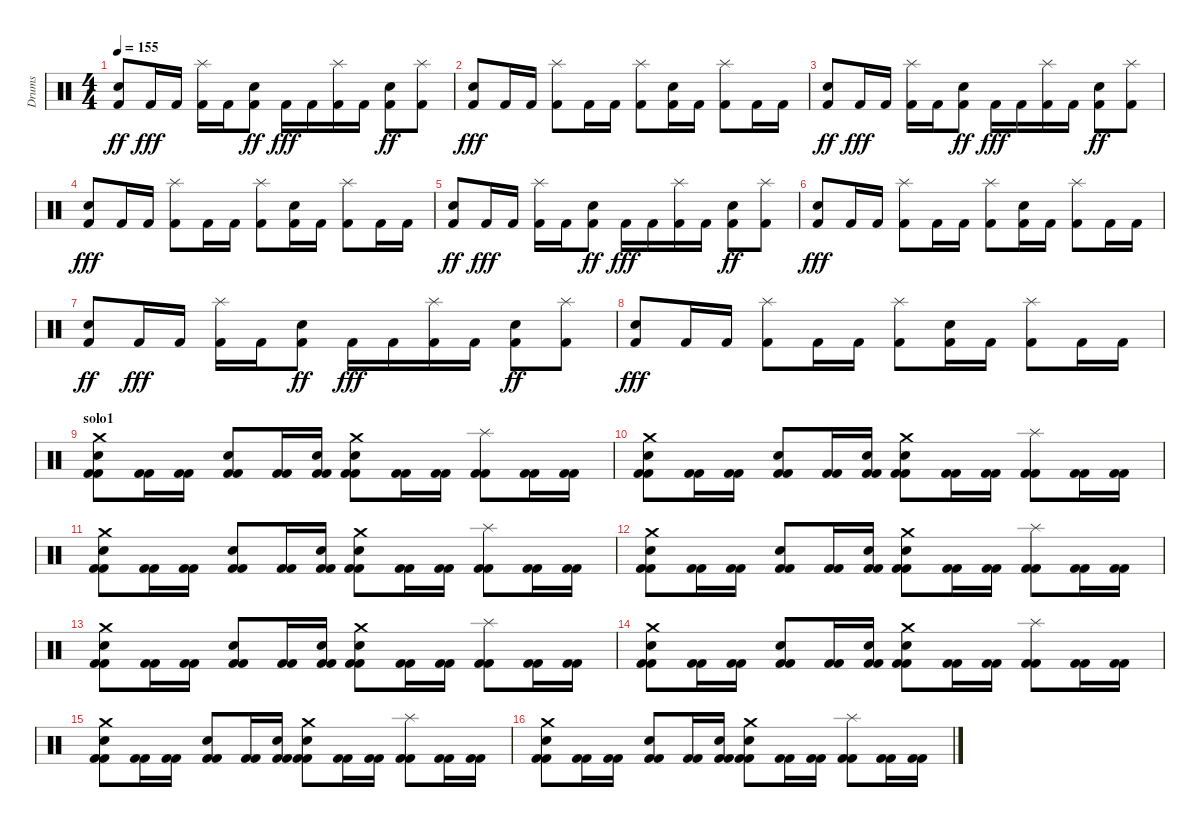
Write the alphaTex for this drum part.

\track ("Drums" "Drums") {instrument percussion}
\staff {score}
\articulation defaults
\ts (4 4)
\tempo 155
\clef neutral
\ks c
("Kick (hit) 2" "Electric Snare (hit)").8{dy ff} "Kick (hit) 2".16{dy fff} "Kick (hit) 2".16 ("Splash (hit)" "Kick (hit) 2").16 "Kick (hit) 2".16 ("Kick (hit) 2" "Electric Snare (hit)").8{dy ff} "Kick (hit) 2".16{dy fff} "Kick (hit) 2".16 ("Splash (hit)" "Kick (hit) 2").16 "Kick (hit) 2".16 ("Kick (hit) 2" "Electric Snare (hit)").8{dy ff} ("Kick (hit) 2" "Splash (hit)").8 |
("Electric Snare (hit)" "Kick (hit) 2").8{dy fff} "Kick (hit) 2".16 "Kick (hit) 2".16 ("Splash (hit)" "Kick (hit) 2").8 "Kick (hit) 2".16 "Kick (hit) 2".16 ("Splash (hit)" "Kick (hit) 2").8 ("Electric Snare (hit)" "Kick (hit) 2").16 "Kick (hit) 2".16 ("Splash (hit)" "Kick (hit) 2").8 "Kick (hit) 2".16 "Kick (hit) 2".16 |
("Kick (hit) 2" "Electric Snare (hit)").8{dy ff} "Kick (hit) 2".16{dy fff} "Kick (hit) 2".16 ("Splash (hit)" "Kick (hit) 2").16 "Kick (hit) 2".16 ("Kick (hit) 2" "Electric Snare (hit)").8{dy ff} "Kick (hit) 2".16{dy fff} "Kick (hit) 2".16 ("Splash (hit)" "Kick (hit) 2").16 "Kick (hit) 2".16 ("Kick (hit) 2" "Electric Snare (hit)").8{dy ff} ("Kick (hit) 2" "Splash (hit)").8 |
("Electric Snare (hit)" "Kick (hit) 2").8{dy fff} "Kick (hit) 2".16 "Kick (hit) 2".16 ("Splash (hit)" "Kick (hit) 2").8 "Kick (hit) 2".16 "Kick (hit) 2".16 ("Splash (hit)" "Kick (hit) 2").8 ("Electric Snare (hit)" "Kick (hit) 2").16 "Kick (hit) 2".16 ("Splash (hit)" "Kick (hit) 2").8 "Kick (hit) 2".16 "Kick (hit) 2".16 |
("Kick (hit) 2" "Electric Snare (hit)").8{dy ff} "Kick (hit) 2".16{dy fff} "Kick (hit) 2".16 ("Splash (hit)" "Kick (hit) 2").16 "Kick (hit) 2".16 ("Kick (hit) 2" "Electric Snare (hit)").8{dy ff} "Kick (hit) 2".16{dy fff} "Kick (hit) 2".16 ("Splash (hit)" "Kick (hit) 2").16 "Kick (hit) 2".16 ("Kick (hit) 2" "Electric Snare (hit)").8{dy ff} ("Kick (hit) 2" "Splash (hit)").8 |
("Electric Snare (hit)" "Kick (hit) 2").8{dy fff} "Kick (hit) 2".16 "Kick (hit) 2".16 ("Splash (hit)" "Kick (hit) 2").8 "Kick (hit) 2".16 "Kick (hit) 2".16 ("Splash (hit)" "Kick (hit) 2").8 ("Electric Snare (hit)" "Kick (hit) 2").16 "Kick (hit) 2".16 ("Splash (hit)" "Kick (hit) 2").8 "Kick (hit) 2".16 "Kick (hit) 2".16 |
("Kick (hit) 2" "Electric Snare (hit)").8{dy ff} "Kick (hit) 2".16{dy fff} "Kick (hit) 2".16 ("Splash (hit)" "Kick (hit) 2").16 "Kick (hit) 2".16 ("Kick (hit) 2" "Electric Snare (hit)").8{dy ff} "Kick (hit) 2".16{dy fff} "Kick (hit) 2".16 ("Splash (hit)" "Kick (hit) 2").16 "Kick (hit) 2".16 ("Kick (hit) 2" "Electric Snare (hit)").8{dy ff} ("Kick (hit) 2" "Splash (hit)").8 |
("Electric Snare (hit)" "Kick (hit) 2").8{dy fff} "Kick (hit) 2".16 "Kick (hit) 2".16 ("Splash (hit)" "Kick (hit) 2").8 "Kick (hit) 2".16 "Kick (hit) 2".16 ("Splash (hit)" "Kick (hit) 2").8 ("Electric Snare (hit)" "Kick (hit) 2").16 "Kick (hit) 2".16 ("Splash (hit)" "Kick (hit) 2").8 "Kick (hit) 2".16 "Kick (hit) 2".16 |
\section ("" "solo1")
("Crash medium (hit)" "Electric Snare (hit)" "Kick (hit) 2" "Kick (hit) 2").8 ("Kick (hit) 2" "Kick (hit) 2").16 ("Kick (hit) 2" "Kick (hit) 2").16 ("Electric Snare (hit)" "Kick (hit) 2" "Kick (hit) 2").8 ("Kick (hit) 2" "Kick (hit) 2").16 ("Snare (hit) 2" "Kick (hit) 2" "Kick (hit) 2").16 ("Crash medium (hit)" "Electric Snare (hit)" "Kick (hit) 2" "Kick (hit) 2").8 ("Kick (hit) 2" "Kick (hit) 2").16 ("Kick (hit) 2" "Kick (hit) 2").16 ("Splash (hit)" "Kick (hit) 2" "Kick (hit) 2").8 ("Kick (hit) 2" "Kick (hit) 2").16 ("Kick (hit) 2" "Kick (hit) 2").16 |
("Crash medium (hit)" "Electric Snare (hit)" "Kick (hit) 2" "Kick (hit) 2").8 ("Kick (hit) 2" "Kick (hit) 2").16 ("Kick (hit) 2" "Kick (hit) 2").16 ("Electric Snare (hit)" "Kick (hit) 2" "Kick (hit) 2").8 ("Kick (hit) 2" "Kick (hit) 2").16 ("Snare (hit) 2" "Kick (hit) 2" "Kick (hit) 2").16 ("Crash medium (hit)" "Electric Snare (hit)" "Kick (hit) 2" "Kick (hit) 2").8 ("Kick (hit) 2" "Kick (hit) 2").16 ("Kick (hit) 2" "Kick (hit) 2").16 ("Splash (hit)" "Kick (hit) 2" "Kick (hit) 2").8 ("Kick (hit) 2" "Kick (hit) 2").16 ("Kick (hit) 2" "Kick (hit) 2").16 |
("Crash medium (hit)" "Electric Snare (hit)" "Kick (hit) 2" "Kick (hit) 2").8 ("Kick (hit) 2" "Kick (hit) 2").16 ("Kick (hit) 2" "Kick (hit) 2").16 ("Electric Snare (hit)" "Kick (hit) 2" "Kick (hit) 2").8 ("Kick (hit) 2" "Kick (hit) 2").16 ("Snare (hit) 2" "Kick (hit) 2" "Kick (hit) 2").16 ("Crash medium (hit)" "Electric Snare (hit)" "Kick (hit) 2" "Kick (hit) 2").8 ("Kick (hit) 2" "Kick (hit) 2").16 ("Kick (hit) 2" "Kick (hit) 2").16 ("Splash (hit)" "Kick (hit) 2" "Kick (hit) 2").8 ("Kick (hit) 2" "Kick (hit) 2").16 ("Kick (hit) 2" "Kick (hit) 2").16 |
("Crash medium (hit)" "Electric Snare (hit)" "Kick (hit) 2" "Kick (hit) 2").8 ("Kick (hit) 2" "Kick (hit) 2").16 ("Kick (hit) 2" "Kick (hit) 2").16 ("Electric Snare (hit)" "Kick (hit) 2" "Kick (hit) 2").8 ("Kick (hit) 2" "Kick (hit) 2").16 ("Snare (hit) 2" "Kick (hit) 2" "Kick (hit) 2").16 ("Crash medium (hit)" "Electric Snare (hit)" "Kick (hit) 2" "Kick (hit) 2").8 ("Kick (hit) 2" "Kick (hit) 2").16 ("Kick (hit) 2" "Kick (hit) 2").16 ("Splash (hit)" "Kick (hit) 2" "Kick (hit) 2").8 ("Kick (hit) 2" "Kick (hit) 2").16 ("Kick (hit) 2" "Kick (hit) 2").16 |
("Crash medium (hit)" "Electric Snare (hit)" "Kick (hit) 2" "Kick (hit) 2").8 ("Kick (hit) 2" "Kick (hit) 2").16 ("Kick (hit) 2" "Kick (hit) 2").16 ("Electric Snare (hit)" "Kick (hit) 2" "Kick (hit) 2").8 ("Kick (hit) 2" "Kick (hit) 2").16 ("Snare (hit) 2" "Kick (hit) 2" "Kick (hit) 2").16 ("Crash medium (hit)" "Electric Snare (hit)" "Kick (hit) 2" "Kick (hit) 2").8 ("Kick (hit) 2" "Kick (hit) 2").16 ("Kick (hit) 2" "Kick (hit) 2").16 ("Splash (hit)" "Kick (hit) 2" "Kick (hit) 2").8 ("Kick (hit) 2" "Kick (hit) 2").16 ("Kick (hit) 2" "Kick (hit) 2").16 |
("Crash medium (hit)" "Electric Snare (hit)" "Kick (hit) 2" "Kick (hit) 2").8 ("Kick (hit) 2" "Kick (hit) 2").16 ("Kick (hit) 2" "Kick (hit) 2").16 ("Electric Snare (hit)" "Kick (hit) 2" "Kick (hit) 2").8 ("Kick (hit) 2" "Kick (hit) 2").16 ("Snare (hit) 2" "Kick (hit) 2" "Kick (hit) 2").16 ("Crash medium (hit)" "Electric Snare (hit)" "Kick (hit) 2" "Kick (hit) 2").8 ("Kick (hit) 2" "Kick (hit) 2").16 ("Kick (hit) 2" "Kick (hit) 2").16 ("Splash (hit)" "Kick (hit) 2" "Kick (hit) 2").8 ("Kick (hit) 2" "Kick (hit) 2").16 ("Kick (hit) 2" "Kick (hit) 2").16 |
("Crash medium (hit)" "Electric Snare (hit)" "Kick (hit) 2" "Kick (hit) 2").8 ("Kick (hit) 2" "Kick (hit) 2").16 ("Kick (hit) 2" "Kick (hit) 2").16 ("Electric Snare (hit)" "Kick (hit) 2" "Kick (hit) 2").8 ("Kick (hit) 2" "Kick (hit) 2").16 ("Snare (hit) 2" "Kick (hit) 2" "Kick (hit) 2").16 ("Crash medium (hit)" "Electric Snare (hit)" "Kick (hit) 2" "Kick (hit) 2").8 ("Kick (hit) 2" "Kick (hit) 2").16 ("Kick (hit) 2" "Kick (hit) 2").16 ("Splash (hit)" "Kick (hit) 2" "Kick (hit) 2").8 ("Kick (hit) 2" "Kick (hit) 2").16 ("Kick (hit) 2" "Kick (hit) 2").16 |
("Crash medium (hit)" "Electric Snare (hit)" "Kick (hit) 2" "Kick (hit) 2").8 ("Kick (hit) 2" "Kick (hit) 2").16 ("Kick (hit) 2" "Kick (hit) 2").16 ("Electric Snare (hit)" "Kick (hit) 2" "Kick (hit) 2").8 ("Kick (hit) 2" "Kick (hit) 2").16 ("Snare (hit) 2" "Kick (hit) 2" "Kick (hit) 2").16 ("Crash medium (hit)" "Electric Snare (hit)" "Kick (hit) 2" "Kick (hit) 2").8 ("Kick (hit) 2" "Kick (hit) 2").16 ("Kick (hit) 2" "Kick (hit) 2").16 ("Splash (hit)" "Kick (hit) 2" "Kick (hit) 2").8 ("Kick (hit) 2" "Kick (hit) 2").16 ("Kick (hit) 2" "Kick (hit) 2").16
